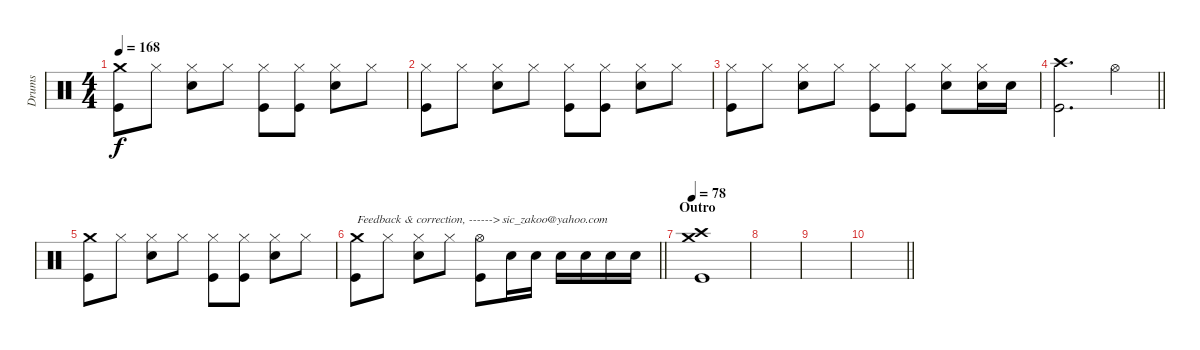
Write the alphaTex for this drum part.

\track ("Drums" "Drums") {instrument percussion}
\staff {score}
\articulation defaults
\ts (4 4)
\tempo 168
\clef neutral
\ks c
("Crash medium (hit)" "Kick (hit)").8{dy f} "Hi-Hat (closed)".8 ("Hi-Hat (closed)" "Snare (hit) 2").8 "Hi-Hat (closed)".8 ("Hi-Hat (closed)" "Kick (hit)").8 ("Hi-Hat (closed)" "Kick (hit)").8 ("Hi-Hat (closed)" "Snare (hit) 2").8 "Hi-Hat (closed)".8 |
("Hi-Hat (closed)" "Kick (hit)").8 "Hi-Hat (closed)".8 ("Hi-Hat (closed)" "Snare (hit) 2").8 "Hi-Hat (closed)".8 ("Hi-Hat (closed)" "Kick (hit)").8 ("Hi-Hat (closed)" "Kick (hit)").8 ("Hi-Hat (closed)" "Snare (hit) 2").8 "Hi-Hat (closed)".8 |
("Hi-Hat (closed)" "Kick (hit)").8 "Hi-Hat (closed)".8 ("Hi-Hat (closed)" "Snare (hit) 2").8 "Hi-Hat (closed)".8 ("Hi-Hat (closed)" "Kick (hit)").8 ("Hi-Hat (closed)" "Kick (hit)").8 ("Hi-Hat (closed)" "Snare (hit) 2").8 ("Hi-Hat (closed)" "Snare (hit) 2").16 "Snare (hit) 2".16 |
\barLineRight lightlight
("Crash high (hit)" "Kick (hit)").2{d} "Hi-Hat (open)".4 |
("Crash medium (hit)" "Kick (hit)").8 "Hi-Hat (closed)".8 ("Hi-Hat (closed)" "Snare (hit) 2").8 "Hi-Hat (closed)".8 ("Hi-Hat (closed)" "Kick (hit)").8 ("Hi-Hat (closed)" "Kick (hit)").8 ("Hi-Hat (closed)" "Snare (hit) 2").8 "Hi-Hat (closed)".8 |
\barLineRight lightlight
("Crash medium (hit)" "Kick (hit)").8{txt "Feedback & correction, ------> sic_zakoo@yahoo.com"} "Hi-Hat (closed)".8 ("Hi-Hat (closed)" "Snare (hit) 2").8 "Hi-Hat (closed)".8 ("Hi-Hat (open)" "Kick (hit)").8 "Snare (hit) 2".16 "Snare (hit) 2".16 "Snare (hit) 2".16 "Snare (hit) 2".16 "Snare (hit) 2".16 "Snare (hit) 2".16 |
\section ("" "Outro")
\tempo 78
("Crash high (hit)" "Crash medium (hit)" "Kick (hit)").1 |
|
|
\barLineRight lightlight
